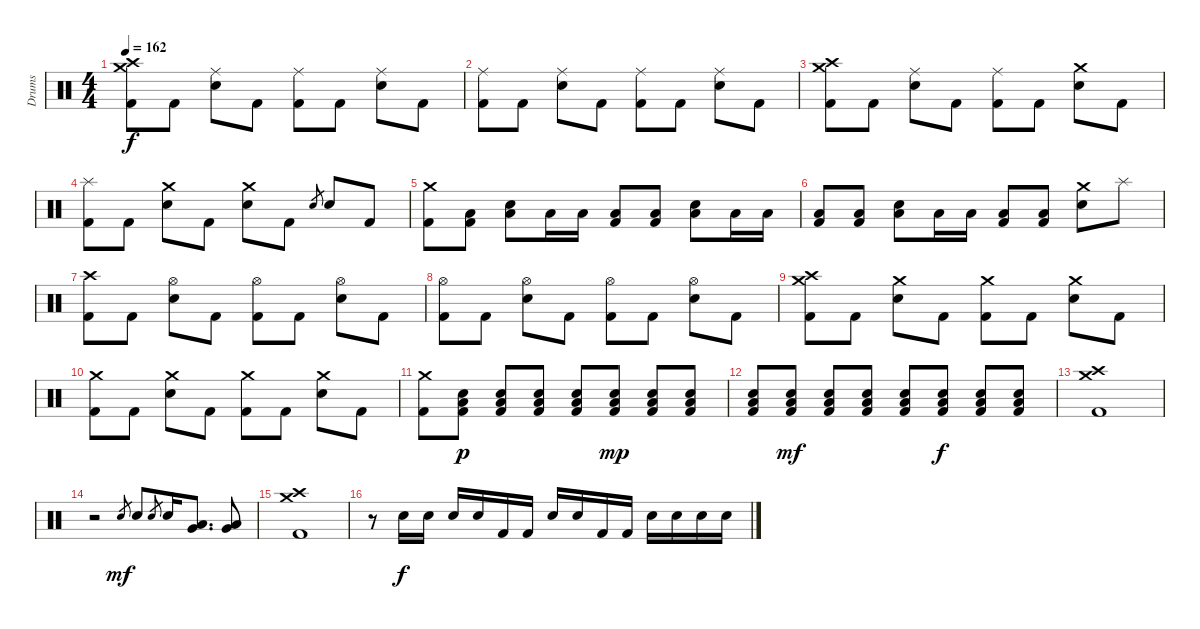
\track ("Drums" "Drums") {instrument percussion}
\staff {score}
\articulation defaults
\ts (4 4)
\tempo 162
\clef neutral
\ks c
("Crash medium (hit)" "Crash high (hit)" "Kick (hit) 2").8{dy f} "Kick (hit) 2".8 ("Ride (middle)" "Electric Snare (hit)").8 "Kick (hit) 2".8 ("Ride (middle)" "Kick (hit) 2").8 "Kick (hit) 2".8 ("Ride (middle)" "Electric Snare (hit)").8 "Kick (hit) 2".8 |
("Ride (middle)" "Kick (hit) 2").8 "Kick (hit) 2".8 ("Ride (middle)" "Electric Snare (hit)").8 "Kick (hit) 2".8 ("Ride (middle)" "Kick (hit) 2").8 "Kick (hit) 2".8 ("Ride (middle)" "Electric Snare (hit)").8 "Kick (hit) 2".8 |
("Crash medium (hit)" "Crash high (hit)" "Kick (hit) 2").8 "Kick (hit) 2".8 ("Ride (middle)" "Electric Snare (hit)").8 "Kick (hit) 2".8 ("Ride (middle)" "Kick (hit) 2").8 "Kick (hit) 2".8 ("Crash medium (hit)" "Electric Snare (hit)").8 "Kick (hit) 2".8 |
("Splash (hit)" "Kick (hit) 2").8 "Kick (hit) 2".8 ("Crash medium (hit)" "Electric Snare (hit)").8 "Kick (hit) 2".8 ("Crash medium (hit)" "Electric Snare (hit)").8 "Kick (hit) 2".8 "Electric Snare (hit)".8{gr} "Electric Snare (hit)".8 "Kick (hit) 2".8 |
("Crash medium (hit)" "Kick (hit) 2").8 ("Low Floor Tom (hit)" "Kick (hit) 2").8 ("Low Floor Tom (hit)" "Electric Snare (hit)").8 "Low Tom (hit)".16 "Low Tom (hit)".16 ("Low Floor Tom (hit)" "Kick (hit) 2").8 ("Low Floor Tom (hit)" "Kick (hit) 2").8 ("Low Floor Tom (hit)" "Electric Snare (hit)").8 "Low Tom (hit)".16 "Low Tom (hit)".16 |
("Low Floor Tom (hit)" "Kick (hit) 2").8 ("Low Floor Tom (hit)" "Kick (hit) 2").8 ("Low Floor Tom (hit)" "Electric Snare (hit)").8 "Low Tom (hit)".16 "Low Tom (hit)".16 ("Low Floor Tom (hit)" "Kick (hit) 2").8 ("Low Floor Tom (hit)" "Kick (hit) 2").8 ("Crash medium (hit)" "Electric Snare (hit)").8 "Splash (hit)".8 |
("Crash high (hit)" "Kick (hit) 2").8 "Kick (hit) 2".8 ("Hi-Hat (open)" "Electric Snare (hit)").8 "Kick (hit) 2".8 ("Hi-Hat (open)" "Kick (hit) 2").8 "Kick (hit) 2".8 ("Hi-Hat (open)" "Electric Snare (hit)").8 "Kick (hit) 2".8 |
("Hi-Hat (open)" "Kick (hit) 2").8 "Kick (hit) 2".8 ("Hi-Hat (open)" "Electric Snare (hit)").8 "Kick (hit) 2".8 ("Hi-Hat (open)" "Kick (hit) 2").8 "Kick (hit) 2".8 ("Hi-Hat (open)" "Electric Snare (hit)").8 "Kick (hit) 2".8 |
("Crash medium (hit)" "Crash high (hit)" "Kick (hit) 2").8 "Kick (hit) 2".8 ("Crash medium (hit)" "Electric Snare (hit)").8 "Kick (hit) 2".8 ("Crash medium (hit)" "Kick (hit) 2").8 "Kick (hit) 2".8 ("Crash medium (hit)" "Electric Snare (hit)").8 "Kick (hit) 2".8 |
("Crash medium (hit)" "Kick (hit) 2").8 "Kick (hit) 2".8 ("Crash medium (hit)" "Electric Snare (hit)").8 "Kick (hit) 2".8 ("Crash medium (hit)" "Kick (hit) 2").8 "Kick (hit) 2".8 ("Crash medium (hit)" "Electric Snare (hit)").8 "Kick (hit) 2".8 |
("Crash medium (hit)" "Kick (hit) 2").8 ("Low Floor Tom (hit)" "Electric Snare (hit)" "Kick (hit) 2").8{dy p} ("Low Floor Tom (hit)" "Electric Snare (hit)" "Kick (hit) 2").8 ("Low Floor Tom (hit)" "Electric Snare (hit)" "Kick (hit) 2").8 ("Low Floor Tom (hit)" "Electric Snare (hit)" "Kick (hit) 2").8 ("Low Floor Tom (hit)" "Electric Snare (hit)" "Kick (hit) 2").8{dy mp} ("Low Floor Tom (hit)" "Electric Snare (hit)" "Kick (hit) 2").8 ("Low Floor Tom (hit)" "Electric Snare (hit)" "Kick (hit) 2").8 |
("Low Floor Tom (hit)" "Electric Snare (hit)" "Kick (hit) 2").8 ("Low Floor Tom (hit)" "Electric Snare (hit)" "Kick (hit) 2").8{dy mf} ("Low Floor Tom (hit)" "Electric Snare (hit)" "Kick (hit) 2").8 ("Low Floor Tom (hit)" "Electric Snare (hit)" "Kick (hit) 2").8 ("Low Floor Tom (hit)" "Electric Snare (hit)" "Kick (hit) 2").8 ("Low Floor Tom (hit)" "Electric Snare (hit)" "Kick (hit) 2").8{dy f} ("Low Floor Tom (hit)" "Electric Snare (hit)" "Kick (hit) 2").8 ("Low Floor Tom (hit)" "Electric Snare (hit)" "Kick (hit) 2").8 |
("Crash medium (hit)" "Crash high (hit)" "Kick (hit) 2").1 |
r.2 "Electric Snare (hit)".8{gr dy mf} "Electric Snare (hit)".8 "Electric Snare (hit)".8{gr} "Electric Snare (hit)".16 ("Low Floor Tom (hit)" "Very Low Tom (hit)").8{d} ("Low Floor Tom (hit)" "Very Low Tom (hit)").8 |
("Crash medium (hit)" "Crash high (hit)" "Kick (hit) 2").1 |
r.8 "Electric Snare (hit)".16{dy f} "Electric Snare (hit)".16 "Electric Snare (hit)".16 "Electric Snare (hit)".16 "Kick (hit) 2".16 "Kick (hit) 2".16 "Electric Snare (hit)".16 "Electric Snare (hit)".16 "Kick (hit) 2".16 "Kick (hit) 2".16 "Electric Snare (hit)".16 "Electric Snare (hit)".16 "Electric Snare (hit)".16 "Electric Snare (hit)".16
